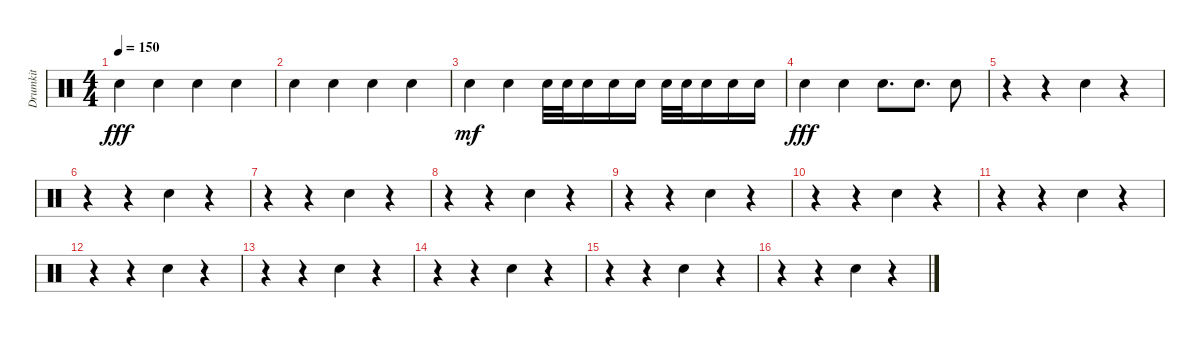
\track ("Drumkit" "Drumkit") {instrument percussion}
\staff {score}
\articulation defaults
\ts (4 4)
\tempo 150
\clef neutral
\ks c "Snare (hit) 2".4{dy fff} "Snare (hit) 2".4 "Snare (hit) 2".4 "Snare (hit) 2".4
|
"Snare (hit) 2".4 "Snare (hit) 2".4 "Snare (hit) 2".4 "Snare (hit) 2".4 |
"Snare (hit) 2".4{dy mf} "Snare (hit) 2".4 "Snare (hit) 2".32 "Snare (hit) 2".32 "Snare (hit) 2".16 "Snare (hit) 2".16 "Snare (hit) 2".16 "Snare (hit) 2".32 "Snare (hit) 2".32 "Snare (hit) 2".16 "Snare (hit) 2".16 "Snare (hit) 2".16 |
"Snare (hit) 2".4{dy fff} "Snare (hit) 2".4 "Snare (hit) 2".8{d} "Snare (hit) 2".8{d} "Snare (hit) 2".8 |
r.4 r.4 "Snare (hit) 2".4 r.4 |
r.4 r.4 "Snare (hit) 2".4 r.4 |
r.4 r.4 "Snare (hit) 2".4 r.4 |
r.4 r.4 "Snare (hit) 2".4 r.4 |
r.4 r.4 "Snare (hit) 2".4 r.4 |
r.4 r.4 "Snare (hit) 2".4 r.4 |
r.4 r.4 "Snare (hit) 2".4 r.4 |
r.4 r.4 "Snare (hit) 2".4 r.4 |
r.4 r.4 "Snare (hit) 2".4 r.4 |
r.4 r.4 "Snare (hit) 2".4 r.4 |
r.4 r.4 "Snare (hit) 2".4 r.4 |
r.4 r.4 "Snare (hit) 2".4 r.4
